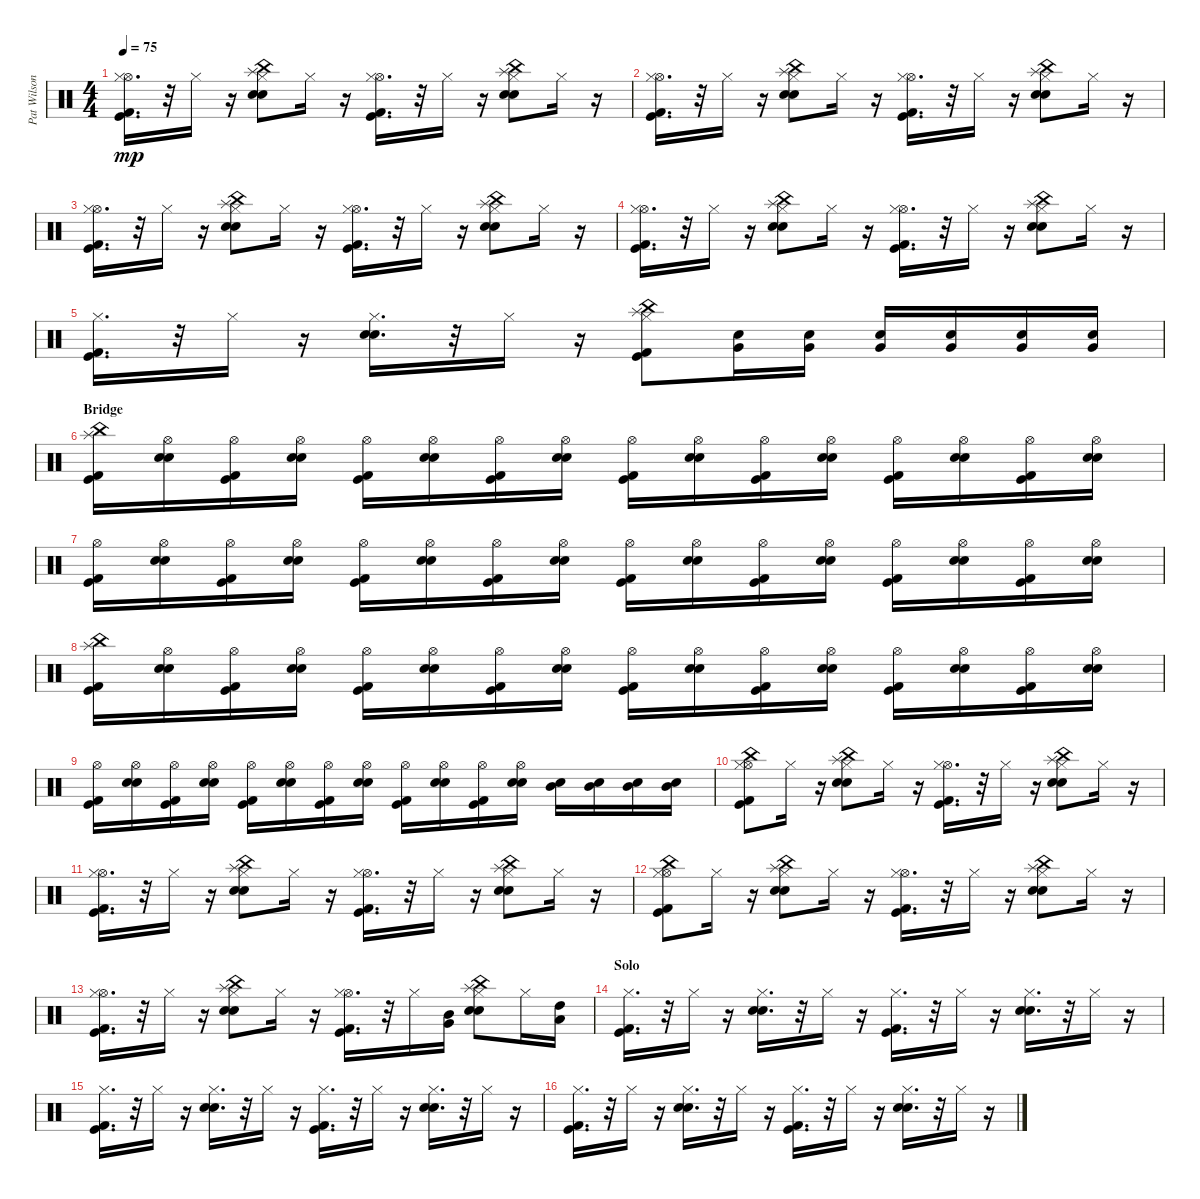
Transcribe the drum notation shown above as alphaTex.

\track ("Pat Wilson - Drums" "Pat Wilson") {instrument percussion}
\staff {score}
\articulation defaults
\ts (4 4)
\tempo 75
\clef neutral
\ks c
("Hi-Hat (open)" "Kick (hit) 2" "Kick (hit)" "Hi-Hat (closed)").16{d dy mp} r.32 "Hi-Hat (closed)".16 r.16 ("Splash (hit)" "China (hit)" "Snare (hit) 2" "Electric Snare (hit)" "Hi-Hat (closed)").8 "Hi-Hat (closed)".16 r.16 ("Hi-Hat (open)" "Kick (hit) 2" "Kick (hit)" "Hi-Hat (closed)").16{d} r.32 "Hi-Hat (closed)".16 r.16 ("Splash (hit)" "China (hit)" "Snare (hit) 2" "Electric Snare (hit)" "Hi-Hat (closed)").8 "Hi-Hat (closed)".16 r.16 |
("Hi-Hat (open)" "Kick (hit) 2" "Kick (hit)" "Hi-Hat (closed)").16{d} r.32 "Hi-Hat (closed)".16 r.16 ("Splash (hit)" "China (hit)" "Snare (hit) 2" "Electric Snare (hit)" "Hi-Hat (closed)").8 "Hi-Hat (closed)".16 r.16 ("Hi-Hat (open)" "Kick (hit) 2" "Kick (hit)" "Hi-Hat (closed)").16{d} r.32 "Hi-Hat (closed)".16 r.16 ("Splash (hit)" "China (hit)" "Snare (hit) 2" "Electric Snare (hit)" "Hi-Hat (closed)").8 "Hi-Hat (closed)".16 r.16 |
("Hi-Hat (open)" "Kick (hit) 2" "Kick (hit)" "Hi-Hat (closed)").16{d} r.32 "Hi-Hat (closed)".16 r.16 ("Splash (hit)" "China (hit)" "Snare (hit) 2" "Electric Snare (hit)" "Hi-Hat (closed)").8 "Hi-Hat (closed)".16 r.16 ("Hi-Hat (open)" "Kick (hit) 2" "Kick (hit)" "Hi-Hat (closed)").16{d} r.32 "Hi-Hat (closed)".16 r.16 ("Splash (hit)" "China (hit)" "Snare (hit) 2" "Electric Snare (hit)" "Hi-Hat (closed)").8 "Hi-Hat (closed)".16 r.16 |
("Hi-Hat (open)" "Kick (hit) 2" "Kick (hit)" "Hi-Hat (closed)").16{d} r.32 "Hi-Hat (closed)".16 r.16 ("Splash (hit)" "China (hit)" "Snare (hit) 2" "Electric Snare (hit)" "Hi-Hat (closed)").8 "Hi-Hat (closed)".16 r.16 ("Hi-Hat (open)" "Kick (hit) 2" "Kick (hit)" "Hi-Hat (closed)").16{d} r.32 "Hi-Hat (closed)".16 r.16 ("Splash (hit)" "China (hit)" "Snare (hit) 2" "Electric Snare (hit)" "Hi-Hat (closed)").8 "Hi-Hat (closed)".16 r.16 |
("Kick (hit) 2" "Kick (hit)" "Hi-Hat (closed)").16{d} r.32 "Hi-Hat (closed)".16 r.16 ("Snare (hit) 2" "Electric Snare (hit)" "Hi-Hat (closed)").16{d} r.32 "Hi-Hat (closed)".16 r.16 ("China (hit)" "Splash (hit)" "Kick (hit) 2" "Kick (hit)" "Hi-Hat (closed)").8 ("Electric Snare (hit)" "Very Low Tom (hit)").16 ("Snare (hit) 2" "Very Low Tom (hit)").16 ("Electric Snare (hit)" "Very Low Tom (hit)").16 ("Electric Snare (hit)" "Very Low Tom (hit)").16 ("Electric Snare (hit)" "Very Low Tom (hit)").16 ("Electric Snare (hit)" "Very Low Tom (hit)").16 |
\section ("" "Bridge")
("China (hit)" "Splash (hit)" "Kick (hit) 2" "Kick (hit)").16 ("Hi-Hat (open)" "Snare (hit) 2" "Electric Snare (hit)").16 ("Hi-Hat (open)" "Kick (hit) 2" "Kick (hit)").16 ("Hi-Hat (open)" "Snare (hit) 2" "Electric Snare (hit)").16 ("Hi-Hat (open)" "Kick (hit) 2" "Kick (hit)").16 ("Hi-Hat (open)" "Snare (hit) 2" "Electric Snare (hit)").16 ("Hi-Hat (open)" "Kick (hit) 2" "Kick (hit)").16 ("Hi-Hat (open)" "Snare (hit) 2" "Electric Snare (hit)").16 ("Hi-Hat (open)" "Kick (hit) 2" "Kick (hit)").16 ("Hi-Hat (open)" "Snare (hit) 2" "Electric Snare (hit)").16 ("Hi-Hat (open)" "Kick (hit) 2" "Kick (hit)").16 ("Hi-Hat (open)" "Snare (hit) 2" "Electric Snare (hit)").16 ("Hi-Hat (open)" "Kick (hit) 2" "Kick (hit)").16 ("Hi-Hat (open)" "Electric Snare (hit)" "Snare (hit) 2").16 ("Hi-Hat (open)" "Kick (hit) 2" "Kick (hit)").16 ("Hi-Hat (open)" "Snare (hit) 2" "Electric Snare (hit)").16 |
("Hi-Hat (open)" "Kick (hit) 2" "Kick (hit)").16 ("Hi-Hat (open)" "Snare (hit) 2" "Electric Snare (hit)").16 ("Hi-Hat (open)" "Kick (hit) 2" "Kick (hit)").16 ("Hi-Hat (open)" "Snare (hit) 2" "Electric Snare (hit)").16 ("Hi-Hat (open)" "Kick (hit) 2" "Kick (hit)").16 ("Hi-Hat (open)" "Snare (hit) 2" "Electric Snare (hit)").16 ("Hi-Hat (open)" "Kick (hit) 2" "Kick (hit)").16 ("Hi-Hat (open)" "Snare (hit) 2" "Electric Snare (hit)").16 ("Hi-Hat (open)" "Kick (hit) 2" "Kick (hit)").16 ("Hi-Hat (open)" "Snare (hit) 2" "Electric Snare (hit)").16 ("Hi-Hat (open)" "Kick (hit) 2" "Kick (hit)").16 ("Hi-Hat (open)" "Snare (hit) 2" "Electric Snare (hit)").16 ("Hi-Hat (open)" "Kick (hit) 2" "Kick (hit)").16 ("Hi-Hat (open)" "Electric Snare (hit)" "Snare (hit) 2").16 ("Hi-Hat (open)" "Kick (hit) 2" "Kick (hit)").16 ("Hi-Hat (open)" "Snare (hit) 2" "Electric Snare (hit)").16 |
("China (hit)" "Splash (hit)" "Kick (hit) 2" "Kick (hit)").16 ("Hi-Hat (open)" "Snare (hit) 2" "Electric Snare (hit)").16 ("Hi-Hat (open)" "Kick (hit) 2" "Kick (hit)").16 ("Hi-Hat (open)" "Snare (hit) 2" "Electric Snare (hit)").16 ("Hi-Hat (open)" "Kick (hit) 2" "Kick (hit)").16 ("Hi-Hat (open)" "Snare (hit) 2" "Electric Snare (hit)").16 ("Hi-Hat (open)" "Kick (hit) 2" "Kick (hit)").16 ("Hi-Hat (open)" "Snare (hit) 2" "Electric Snare (hit)").16 ("Hi-Hat (open)" "Kick (hit) 2" "Kick (hit)").16 ("Hi-Hat (open)" "Snare (hit) 2" "Electric Snare (hit)").16 ("Hi-Hat (open)" "Kick (hit) 2" "Kick (hit)").16 ("Hi-Hat (open)" "Snare (hit) 2" "Electric Snare (hit)").16 ("Hi-Hat (open)" "Kick (hit) 2" "Kick (hit)").16 ("Hi-Hat (open)" "Electric Snare (hit)" "Snare (hit) 2").16 ("Hi-Hat (open)" "Kick (hit) 2" "Kick (hit)").16 ("Hi-Hat (open)" "Snare (hit) 2" "Electric Snare (hit)").16 |
("Hi-Hat (open)" "Kick (hit) 2" "Kick (hit)").16 ("Hi-Hat (open)" "Snare (hit) 2" "Electric Snare (hit)").16 ("Hi-Hat (open)" "Kick (hit) 2" "Kick (hit)").16 ("Hi-Hat (open)" "Snare (hit) 2" "Electric Snare (hit)").16 ("Hi-Hat (open)" "Kick (hit) 2" "Kick (hit)").16 ("Hi-Hat (open)" "Snare (hit) 2" "Electric Snare (hit)").16 ("Hi-Hat (open)" "Kick (hit) 2" "Kick (hit)").16 ("Hi-Hat (open)" "Snare (hit) 2" "Electric Snare (hit)").16 ("Hi-Hat (open)" "Kick (hit) 2" "Kick (hit)").16 ("Hi-Hat (open)" "Snare (hit) 2" "Electric Snare (hit)").16 ("Hi-Hat (open)" "Kick (hit) 2" "Kick (hit)").16 ("Hi-Hat (open)" "Snare (hit) 2" "Electric Snare (hit)").16 ("Electric Snare (hit)" "Mid Tom (hit)").16 ("Electric Snare (hit)" "Mid Tom (hit)").16 ("Electric Snare (hit)" "Mid Tom (hit)").16 ("Electric Snare (hit)" "Mid Tom (hit)").16 |
("China (hit)" "Hi-Hat (open)" "Kick (hit) 2" "Kick (hit)" "Hi-Hat (closed)").8 "Hi-Hat (closed)".16 r.16 ("Splash (hit)" "China (hit)" "Snare (hit) 2" "Electric Snare (hit)" "Hi-Hat (closed)").8 "Hi-Hat (closed)".16 r.16 ("Hi-Hat (open)" "Kick (hit) 2" "Kick (hit)" "Hi-Hat (closed)").16{d} r.32 "Hi-Hat (closed)".16 r.16 ("Splash (hit)" "China (hit)" "Snare (hit) 2" "Electric Snare (hit)" "Hi-Hat (closed)").8 "Hi-Hat (closed)".16 r.16 |
("Hi-Hat (open)" "Kick (hit) 2" "Kick (hit)" "Hi-Hat (closed)").16{d} r.32 "Hi-Hat (closed)".16 r.16 ("Splash (hit)" "China (hit)" "Snare (hit) 2" "Electric Snare (hit)" "Hi-Hat (closed)").8 "Hi-Hat (closed)".16 r.16 ("Hi-Hat (open)" "Kick (hit) 2" "Kick (hit)" "Hi-Hat (closed)").16{d} r.32 "Hi-Hat (closed)".16 r.16 ("Splash (hit)" "China (hit)" "Snare (hit) 2" "Electric Snare (hit)" "Hi-Hat (closed)").8 "Hi-Hat (closed)".16 r.16 |
("China (hit)" "Hi-Hat (open)" "Kick (hit) 2" "Kick (hit)" "Hi-Hat (closed)").8 "Hi-Hat (closed)".16 r.16 ("Splash (hit)" "China (hit)" "Snare (hit) 2" "Electric Snare (hit)" "Hi-Hat (closed)").8 "Hi-Hat (closed)".16 r.16 ("Hi-Hat (open)" "Kick (hit) 2" "Kick (hit)" "Hi-Hat (closed)").16{d} r.32 "Hi-Hat (closed)".16 r.16 ("Splash (hit)" "China (hit)" "Snare (hit) 2" "Electric Snare (hit)" "Hi-Hat (closed)").8 "Hi-Hat (closed)".16 r.16 |
("Hi-Hat (open)" "Kick (hit) 2" "Kick (hit)" "Hi-Hat (closed)").16{d} r.32 "Hi-Hat (closed)".16 r.16 ("Splash (hit)" "China (hit)" "Snare (hit) 2" "Electric Snare (hit)" "Hi-Hat (closed)").8 "Hi-Hat (closed)".16 r.16 ("Hi-Hat (open)" "Kick (hit) 2" "Kick (hit)" "Hi-Hat (closed)").16{d} r.32 "Hi-Hat (closed)".16 ("Mid Tom (hit)" "Very Low Tom (hit)").16 ("Splash (hit)" "China (hit)" "Snare (hit) 2" "Electric Snare (hit)" "Hi-Hat (closed)").8 "Hi-Hat (closed)".16 ("High Tom (hit)" "Low Tom (hit)").16 |
\section ("" "Solo")
("Kick (hit) 2" "Kick (hit)" "Hi-Hat (closed)").16{d} r.32 "Hi-Hat (closed)".16 r.16 ("Snare (hit) 2" "Electric Snare (hit)" "Hi-Hat (closed)").16{d} r.32 "Hi-Hat (closed)".16 r.16 ("Kick (hit) 2" "Kick (hit)" "Hi-Hat (closed)").16{d} r.32 "Hi-Hat (closed)".16 r.16 ("Snare (hit) 2" "Electric Snare (hit)" "Hi-Hat (closed)").16{d} r.32 "Hi-Hat (closed)".16 r.16 |
("Kick (hit) 2" "Kick (hit)" "Hi-Hat (closed)").16{d} r.32 "Hi-Hat (closed)".16 r.16 ("Snare (hit) 2" "Electric Snare (hit)" "Hi-Hat (closed)").16{d} r.32 "Hi-Hat (closed)".16 r.16 ("Kick (hit) 2" "Kick (hit)" "Hi-Hat (closed)").16{d} r.32 "Hi-Hat (closed)".16 r.16 ("Snare (hit) 2" "Electric Snare (hit)" "Hi-Hat (closed)").16{d} r.32 "Hi-Hat (closed)".16 r.16 |
("Kick (hit) 2" "Kick (hit)" "Hi-Hat (closed)").16{d} r.32 "Hi-Hat (closed)".16 r.16 ("Snare (hit) 2" "Electric Snare (hit)" "Hi-Hat (closed)").16{d} r.32 "Hi-Hat (closed)".16 r.16 ("Kick (hit) 2" "Kick (hit)" "Hi-Hat (closed)").16{d} r.32 "Hi-Hat (closed)".16 r.16 ("Snare (hit) 2" "Electric Snare (hit)" "Hi-Hat (closed)").16{d} r.32 "Hi-Hat (closed)".16 r.16
